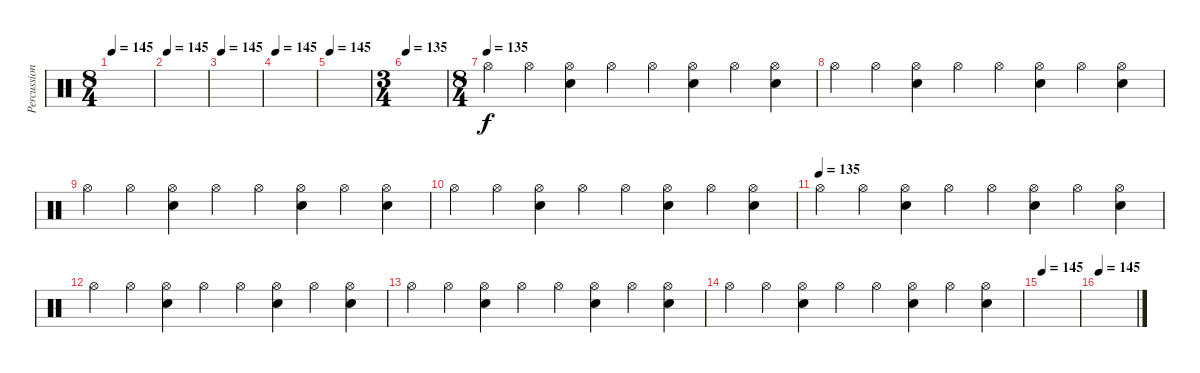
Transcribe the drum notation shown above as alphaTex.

\track ("Percussion" "Percussion") {instrument percussion}
\staff {score}
\articulation defaults
\ts (8 4)
\tempo 145
\clef neutral
\ks c
|
\tempo 145
|
\tempo 145
|
\tempo 145
|
\tempo 145
|
\ts (3 4)
\tempo 135
|
\ts (8 4)
\tempo (135)
"Hi-Hat (open)".4 "Hi-Hat (open)".4 ("Hi-Hat (open)" "Electric Snare (hit)").4 "Hi-Hat (open)".4 "Hi-Hat (open)".4 ("Hi-Hat (open)" "Electric Snare (hit)").4 "Hi-Hat (open)".4 ("Hi-Hat (open)" "Electric Snare (hit)").4 |
"Hi-Hat (open)".4 "Hi-Hat (open)".4 ("Hi-Hat (open)" "Electric Snare (hit)").4 "Hi-Hat (open)".4 "Hi-Hat (open)".4 ("Hi-Hat (open)" "Electric Snare (hit)").4 "Hi-Hat (open)".4 ("Hi-Hat (open)" "Electric Snare (hit)").4 |
"Hi-Hat (open)".4 "Hi-Hat (open)".4 ("Hi-Hat (open)" "Electric Snare (hit)").4 "Hi-Hat (open)".4 "Hi-Hat (open)".4 ("Hi-Hat (open)" "Electric Snare (hit)").4 "Hi-Hat (open)".4 ("Hi-Hat (open)" "Electric Snare (hit)").4 |
"Hi-Hat (open)".4 "Hi-Hat (open)".4 ("Hi-Hat (open)" "Electric Snare (hit)").4 "Hi-Hat (open)".4 "Hi-Hat (open)".4 ("Hi-Hat (open)" "Electric Snare (hit)").4 "Hi-Hat (open)".4 ("Hi-Hat (open)" "Electric Snare (hit)").4 |
\tempo (135)
"Hi-Hat (open)".4 "Hi-Hat (open)".4 ("Hi-Hat (open)" "Electric Snare (hit)").4 "Hi-Hat (open)".4 "Hi-Hat (open)".4 ("Hi-Hat (open)" "Electric Snare (hit)").4 "Hi-Hat (open)".4 ("Hi-Hat (open)" "Electric Snare (hit)").4 |
"Hi-Hat (open)".4 "Hi-Hat (open)".4 ("Hi-Hat (open)" "Electric Snare (hit)").4 "Hi-Hat (open)".4 "Hi-Hat (open)".4 ("Hi-Hat (open)" "Electric Snare (hit)").4 "Hi-Hat (open)".4 ("Hi-Hat (open)" "Electric Snare (hit)").4 |
"Hi-Hat (open)".4 "Hi-Hat (open)".4 ("Hi-Hat (open)" "Electric Snare (hit)").4 "Hi-Hat (open)".4 "Hi-Hat (open)".4 ("Hi-Hat (open)" "Electric Snare (hit)").4 "Hi-Hat (open)".4 ("Hi-Hat (open)" "Electric Snare (hit)").4 |
"Hi-Hat (open)".4 "Hi-Hat (open)".4 ("Hi-Hat (open)" "Electric Snare (hit)").4 "Hi-Hat (open)".4 "Hi-Hat (open)".4 ("Hi-Hat (open)" "Electric Snare (hit)").4 "Hi-Hat (open)".4 ("Hi-Hat (open)" "Electric Snare (hit)").4 |
\tempo 145
|
\tempo 145
